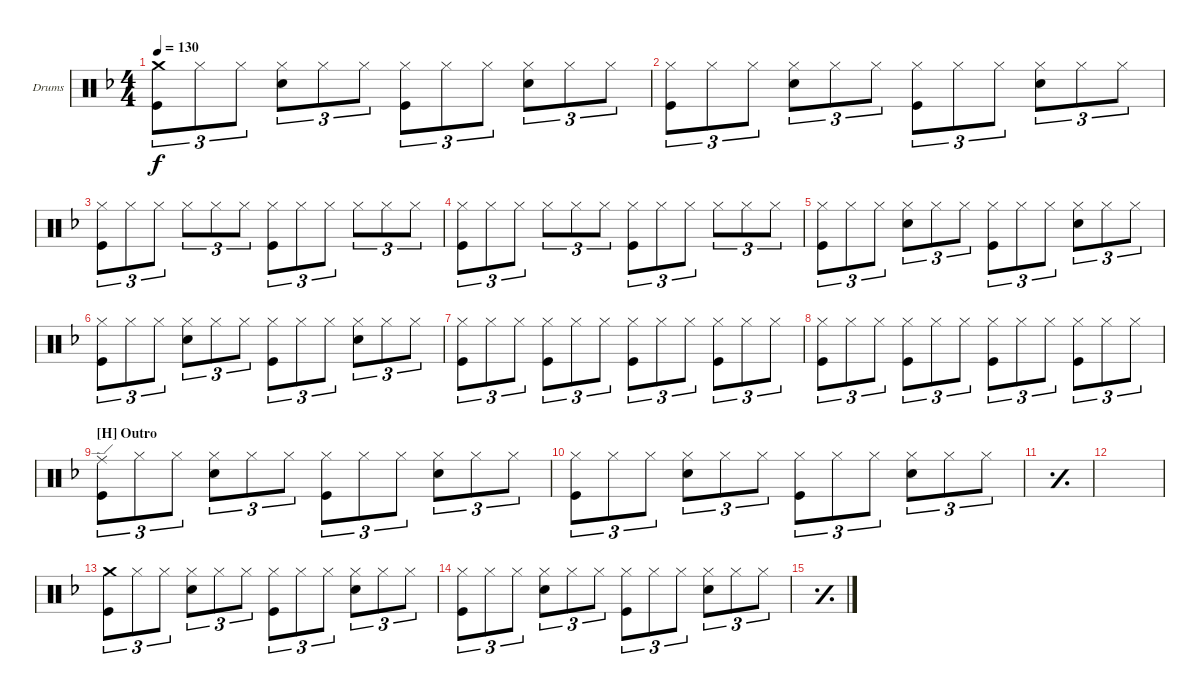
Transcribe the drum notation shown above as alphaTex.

\defaultSystemsLayout 4
\bracketExtendMode groupsimilarinstruments
\firstSystemTrackNameOrientation horizontal
\otherSystemsTrackNameOrientation horizontal
\track ("Matt Helders" "Drums") {instrument percussion}
\staff {score}
\articulation defaults
\ts (4 4)
\tempo 130
\clef neutral
\ks f
("Kick (hit)" "Crash medium (hit)").8{tu (3 2) dy f} "Hi-Hat (closed)".8{tu (3 2)} "Hi-Hat (closed)".8{tu (3 2)} ("Snare (hit) 2" "Hi-Hat (closed)").8{tu (3 2)} "Hi-Hat (closed)".8{tu (3 2)} "Hi-Hat (closed)".8{tu (3 2)} ("Kick (hit)" "Hi-Hat (closed)").8{tu (3 2)} "Hi-Hat (closed)".8{tu (3 2)} "Hi-Hat (closed)".8{tu (3 2)} ("Snare (hit) 2" "Hi-Hat (closed)").8{tu (3 2)} "Hi-Hat (closed)".8{tu (3 2)} "Hi-Hat (closed)".8{tu (3 2)} |
("Kick (hit)" "Hi-Hat (closed)").8{tu (3 2)} "Hi-Hat (closed)".8{tu (3 2)} "Hi-Hat (closed)".8{tu (3 2)} ("Snare (hit) 2" "Hi-Hat (closed)").8{tu (3 2)} "Hi-Hat (closed)".8{tu (3 2)} "Hi-Hat (closed)".8{tu (3 2)} ("Kick (hit)" "Hi-Hat (closed)").8{tu (3 2)} "Hi-Hat (closed)".8{tu (3 2)} "Hi-Hat (closed)".8{tu (3 2)} ("Snare (hit) 2" "Hi-Hat (closed)").8{tu (3 2)} "Hi-Hat (closed)".8{tu (3 2)} "Hi-Hat (closed)".8{tu (3 2)} |
("Kick (hit)" "Hi-Hat (closed)").8{tu (3 2)} "Hi-Hat (closed)".8{tu (3 2)} "Hi-Hat (closed)".8{tu (3 2)} "Hi-Hat (closed)".8{tu (3 2)} "Hi-Hat (closed)".8{tu (3 2)} "Hi-Hat (closed)".8{tu (3 2)} ("Kick (hit)" "Hi-Hat (closed)").8{tu (3 2)} "Hi-Hat (closed)".8{tu (3 2)} "Hi-Hat (closed)".8{tu (3 2)} "Hi-Hat (closed)".8{tu (3 2)} "Hi-Hat (closed)".8{tu (3 2)} "Hi-Hat (closed)".8{tu (3 2)} |
("Kick (hit)" "Hi-Hat (closed)").8{tu (3 2)} "Hi-Hat (closed)".8{tu (3 2)} "Hi-Hat (closed)".8{tu (3 2)} "Hi-Hat (closed)".8{tu (3 2)} "Hi-Hat (closed)".8{tu (3 2)} "Hi-Hat (closed)".8{tu (3 2)} ("Kick (hit)" "Hi-Hat (closed)").8{tu (3 2)} "Hi-Hat (closed)".8{tu (3 2)} "Hi-Hat (closed)".8{tu (3 2)} "Hi-Hat (closed)".8{tu (3 2)} "Hi-Hat (closed)".8{tu (3 2)} "Hi-Hat (closed)".8{tu (3 2)} |
("Kick (hit)" "Hi-Hat (closed)").8{tu (3 2)} "Hi-Hat (closed)".8{tu (3 2)} "Hi-Hat (closed)".8{tu (3 2)} ("Snare (hit) 2" "Hi-Hat (closed)").8{tu (3 2)} "Hi-Hat (closed)".8{tu (3 2)} "Hi-Hat (closed)".8{tu (3 2)} ("Kick (hit)" "Hi-Hat (closed)").8{tu (3 2)} "Hi-Hat (closed)".8{tu (3 2)} "Hi-Hat (closed)".8{tu (3 2)} ("Snare (hit) 2" "Hi-Hat (closed)").8{tu (3 2)} "Hi-Hat (closed)".8{tu (3 2)} "Hi-Hat (closed)".8{tu (3 2)} |
("Kick (hit)" "Hi-Hat (closed)").8{tu (3 2)} "Hi-Hat (closed)".8{tu (3 2)} "Hi-Hat (closed)".8{tu (3 2)} ("Snare (hit) 2" "Hi-Hat (closed)").8{tu (3 2)} "Hi-Hat (closed)".8{tu (3 2)} "Hi-Hat (closed)".8{tu (3 2)} ("Kick (hit)" "Hi-Hat (closed)").8{tu (3 2)} "Hi-Hat (closed)".8{tu (3 2)} "Hi-Hat (closed)".8{tu (3 2)} ("Snare (hit) 2" "Hi-Hat (closed)").8{tu (3 2)} "Hi-Hat (closed)".8{tu (3 2)} "Hi-Hat (closed)".8{tu (3 2)} |
("Kick (hit)" "Hi-Hat (closed)").8{tu (3 2)} "Hi-Hat (closed)".8{tu (3 2)} "Hi-Hat (closed)".8{tu (3 2)} ("Hi-Hat (closed)" "Kick (hit)").8{tu (3 2)} "Hi-Hat (closed)".8{tu (3 2)} "Hi-Hat (closed)".8{tu (3 2)} ("Kick (hit)" "Hi-Hat (closed)").8{tu (3 2)} "Hi-Hat (closed)".8{tu (3 2)} "Hi-Hat (closed)".8{tu (3 2)} ("Hi-Hat (closed)" "Kick (hit)").8{tu (3 2)} "Hi-Hat (closed)".8{tu (3 2)} "Hi-Hat (closed)".8{tu (3 2)} |
("Kick (hit)" "Hi-Hat (closed)").8{tu (3 2)} "Hi-Hat (closed)".8{tu (3 2)} "Hi-Hat (closed)".8{tu (3 2)} ("Hi-Hat (closed)" "Kick (hit)").8{tu (3 2)} "Hi-Hat (closed)".8{tu (3 2)} "Hi-Hat (closed)".8{tu (3 2)} ("Kick (hit)" "Hi-Hat (closed)").8{tu (3 2)} "Hi-Hat (closed)".8{tu (3 2)} "Hi-Hat (closed)".8{tu (3 2)} ("Hi-Hat (closed)" "Kick (hit)").8{tu (3 2)} "Hi-Hat (closed)".8{tu (3 2)} "Hi-Hat (closed)".8{tu (3 2)} |
\section ("H" "Outro")
("Kick (hit)" "Ride (edge)").8{tu (3 2)} "Hi-Hat (closed)".8{tu (3 2)} "Hi-Hat (closed)".8{tu (3 2)} ("Snare (hit) 2" "Hi-Hat (closed)").8{tu (3 2)} "Hi-Hat (closed)".8{tu (3 2)} "Hi-Hat (closed)".8{tu (3 2)} ("Kick (hit)" "Hi-Hat (closed)").8{tu (3 2)} "Hi-Hat (closed)".8{tu (3 2)} "Hi-Hat (closed)".8{tu (3 2)} ("Snare (hit) 2" "Hi-Hat (closed)").8{tu (3 2)} "Hi-Hat (closed)".8{tu (3 2)} "Hi-Hat (closed)".8{tu (3 2)} |
("Kick (hit)" "Hi-Hat (closed)").8{tu (3 2)} "Hi-Hat (closed)".8{tu (3 2)} "Hi-Hat (closed)".8{tu (3 2)} ("Snare (hit) 2" "Hi-Hat (closed)").8{tu (3 2)} "Hi-Hat (closed)".8{tu (3 2)} "Hi-Hat (closed)".8{tu (3 2)} ("Kick (hit)" "Hi-Hat (closed)").8{tu (3 2)} "Hi-Hat (closed)".8{tu (3 2)} "Hi-Hat (closed)".8{tu (3 2)} ("Snare (hit) 2" "Hi-Hat (closed)").8{tu (3 2)} "Hi-Hat (closed)".8{tu (3 2)} "Hi-Hat (closed)".8{tu (3 2)} |
\simile simple
|
|
\simile none
("Kick (hit)" "Crash medium (hit)").8{tu (3 2)} "Hi-Hat (closed)".8{tu (3 2)} "Hi-Hat (closed)".8{tu (3 2)} ("Snare (hit) 2" "Hi-Hat (closed)").8{tu (3 2)} "Hi-Hat (closed)".8{tu (3 2)} "Hi-Hat (closed)".8{tu (3 2)} ("Kick (hit)" "Hi-Hat (closed)").8{tu (3 2)} "Hi-Hat (closed)".8{tu (3 2)} "Hi-Hat (closed)".8{tu (3 2)} ("Snare (hit) 2" "Hi-Hat (closed)").8{tu (3 2)} "Hi-Hat (closed)".8{tu (3 2)} "Hi-Hat (closed)".8{tu (3 2)} |
("Kick (hit)" "Hi-Hat (closed)").8{tu (3 2)} "Hi-Hat (closed)".8{tu (3 2)} "Hi-Hat (closed)".8{tu (3 2)} ("Snare (hit) 2" "Hi-Hat (closed)").8{tu (3 2)} "Hi-Hat (closed)".8{tu (3 2)} "Hi-Hat (closed)".8{tu (3 2)} ("Kick (hit)" "Hi-Hat (closed)").8{tu (3 2)} "Hi-Hat (closed)".8{tu (3 2)} "Hi-Hat (closed)".8{tu (3 2)} ("Snare (hit) 2" "Hi-Hat (closed)").8{tu (3 2)} "Hi-Hat (closed)".8{tu (3 2)} "Hi-Hat (closed)".8{tu (3 2)} |
\simile simple
